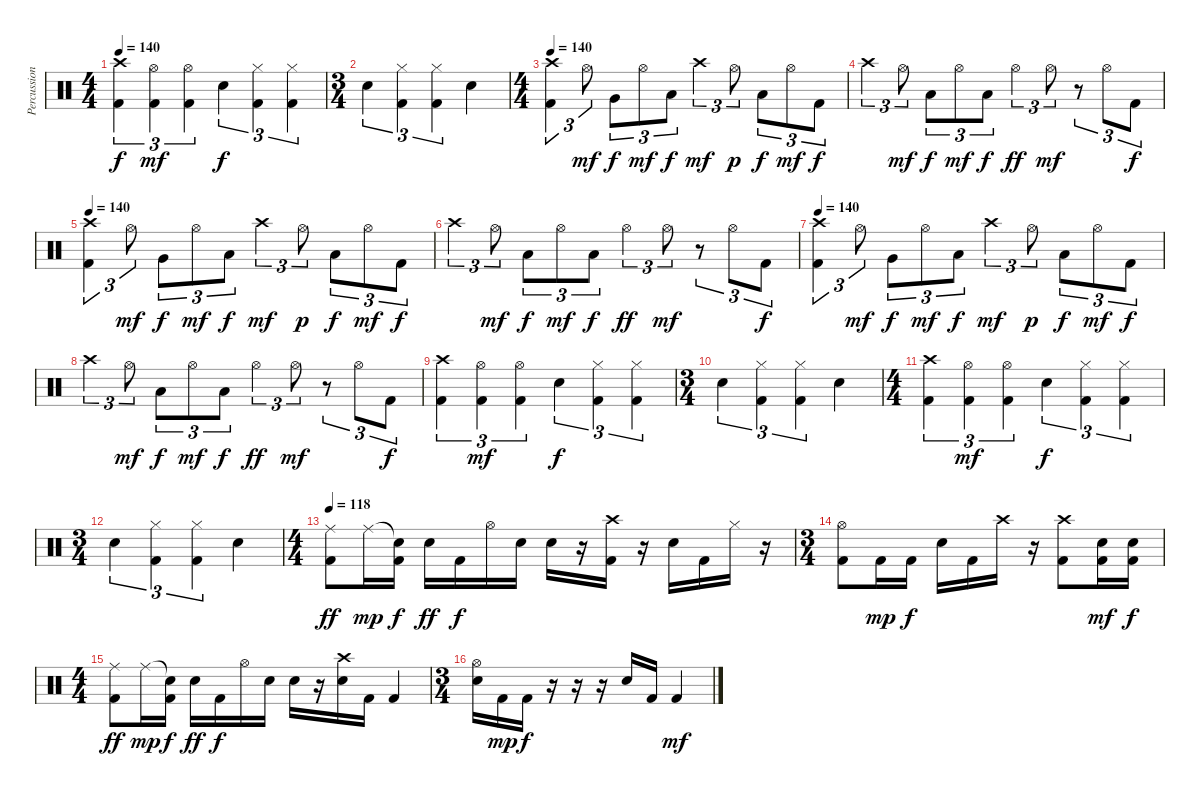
\track ("Percussion" "Percussion") {instrument percussion}
\staff {score}
\articulation defaults
\ts (4 4)
\tempo 140
\clef neutral
\ks c
("Crash high (hit)" "Kick (hit) 2").4{tu (3 2) dy f} ("Hi-Hat (open)" "Kick (hit) 2").4{tu (3 2) dy mf} ("Hi-Hat (open)" "Kick (hit) 2").4{tu (3 2)} "Snare (hit) 2".4{tu (3 2) dy f} ("Hi-Hat (closed)" "Kick (hit) 2").4{tu (3 2)} ("Hi-Hat (closed)" "Kick (hit) 2").4{tu (3 2)} |
\ts (3 4)
"Snare (hit) 2".4{tu (3 2)} ("Hi-Hat (closed)" "Kick (hit) 2").4{tu (3 2)} ("Hi-Hat (closed)" "Kick (hit) 2").4{tu (3 2)} "Snare (hit) 2".4 |
\ts (4 4)
\tempo 140
("Crash high (hit)" "Kick (hit) 2").4{tu (3 2)} "Hi-Hat (open)".8{tu (3 2) dy mf} "Very Low Tom (hit)".8{tu (3 2) dy f} "Hi-Hat (open)".8{tu (3 2) dy mf} "Low Floor Tom (hit)".8{tu (3 2) dy f} "Crash high (hit)".4{tu (3 2) dy mf} "Hi-Hat (open)".8{tu (3 2) dy p} "Low Floor Tom (hit)".8{tu (3 2) dy f} "Hi-Hat (open)".8{tu (3 2) dy mf} "Kick (hit) 2".8{tu (3 2) dy f} |
"Crash high (hit)".4{tu (3 2)} "Hi-Hat (open)".8{tu (3 2) dy mf} "Low Floor Tom (hit)".8{tu (3 2) dy f} "Hi-Hat (open)".8{tu (3 2) dy mf} "Low Floor Tom (hit)".8{tu (3 2) dy f} "Hi-Hat (open)".4{tu (3 2) dy ff} "Hi-Hat (open)".8{tu (3 2) dy mf} r.8{tu (3 2)} "Hi-Hat (open)".8{tu (3 2)} "Kick (hit) 2".8{tu (3 2) dy f} |
\tempo 140
("Crash high (hit)" "Kick (hit) 2").4{tu (3 2)} "Hi-Hat (open)".8{tu (3 2) dy mf} "Very Low Tom (hit)".8{tu (3 2) dy f} "Hi-Hat (open)".8{tu (3 2) dy mf} "Low Floor Tom (hit)".8{tu (3 2) dy f} "Crash high (hit)".4{tu (3 2) dy mf} "Hi-Hat (open)".8{tu (3 2) dy p} "Low Floor Tom (hit)".8{tu (3 2) dy f} "Hi-Hat (open)".8{tu (3 2) dy mf} "Kick (hit) 2".8{tu (3 2) dy f} |
"Crash high (hit)".4{tu (3 2)} "Hi-Hat (open)".8{tu (3 2) dy mf} "Low Floor Tom (hit)".8{tu (3 2) dy f} "Hi-Hat (open)".8{tu (3 2) dy mf} "Low Floor Tom (hit)".8{tu (3 2) dy f} "Hi-Hat (open)".4{tu (3 2) dy ff} "Hi-Hat (open)".8{tu (3 2) dy mf} r.8{tu (3 2)} "Hi-Hat (open)".8{tu (3 2)} "Kick (hit) 2".8{tu (3 2) dy f} |
\tempo 140
("Crash high (hit)" "Kick (hit) 2").4{tu (3 2)} "Hi-Hat (open)".8{tu (3 2) dy mf} "Very Low Tom (hit)".8{tu (3 2) dy f} "Hi-Hat (open)".8{tu (3 2) dy mf} "Low Floor Tom (hit)".8{tu (3 2) dy f} "Crash high (hit)".4{tu (3 2) dy mf} "Hi-Hat (open)".8{tu (3 2) dy p} "Low Floor Tom (hit)".8{tu (3 2) dy f} "Hi-Hat (open)".8{tu (3 2) dy mf} "Kick (hit) 2".8{tu (3 2) dy f} |
"Crash high (hit)".4{tu (3 2)} "Hi-Hat (open)".8{tu (3 2) dy mf} "Low Floor Tom (hit)".8{tu (3 2) dy f} "Hi-Hat (open)".8{tu (3 2) dy mf} "Low Floor Tom (hit)".8{tu (3 2) dy f} "Hi-Hat (open)".4{tu (3 2) dy ff} "Hi-Hat (open)".8{tu (3 2) dy mf} r.8{tu (3 2)} "Hi-Hat (open)".8{tu (3 2)} "Kick (hit) 2".8{tu (3 2) dy f} |
("Crash high (hit)" "Kick (hit) 2").4{tu (3 2)} ("Hi-Hat (open)" "Kick (hit) 2").4{tu (3 2) dy mf} ("Hi-Hat (open)" "Kick (hit) 2").4{tu (3 2)} "Snare (hit) 2".4{tu (3 2) dy f} ("Hi-Hat (closed)" "Kick (hit) 2").4{tu (3 2)} ("Hi-Hat (closed)" "Kick (hit) 2").4{tu (3 2)} |
\ts (3 4)
"Snare (hit) 2".4{tu (3 2)} ("Hi-Hat (closed)" "Kick (hit) 2").4{tu (3 2)} ("Hi-Hat (closed)" "Kick (hit) 2").4{tu (3 2)} "Snare (hit) 2".4 |
\ts (4 4)
("Crash high (hit)" "Kick (hit) 2").4{tu (3 2)} ("Hi-Hat (open)" "Kick (hit) 2").4{tu (3 2) dy mf} ("Hi-Hat (open)" "Kick (hit) 2").4{tu (3 2)} "Snare (hit) 2".4{tu (3 2) dy f} ("Hi-Hat (closed)" "Kick (hit) 2").4{tu (3 2)} ("Hi-Hat (closed)" "Kick (hit) 2").4{tu (3 2)} |
\ts (3 4)
"Snare (hit) 2".4{tu (3 2)} ("Hi-Hat (closed)" "Kick (hit) 2").4{tu (3 2)} ("Hi-Hat (closed)" "Kick (hit) 2").4{tu (3 2)} "Snare (hit) 2".4 |
\ts (4 4)
\tempo 118
("Ride (middle)" "Kick (hit) 2").8{dy ff} "Ride (middle)".16{dy mp} ("Snare (hit)"{t} "Kick (hit) 2").16{dy f} "Snare (hit) 2".16{dy ff} "Kick (hit) 2".16{dy f} "Hi-Hat (open)".16 "Snare (hit) 2".16 "Snare (hit) 2".16 r.16 ("Crash high (hit)" "Kick (hit) 2").16 r.16 "Snare (hit) 2".16 "Kick (hit) 2".16 "Hi-Hat (closed)".16 r.16 |
\ts (3 4)
("Hi-Hat (open)" "Kick (hit) 2").8 "Kick (hit) 2".16{dy mp} "Kick (hit) 2".16{dy f} "Snare (hit) 2".16 "Kick (hit) 2".16 "Crash high (hit)".16 r.16 ("Crash high (hit)" "Kick (hit) 2").8 ("Snare (hit) 2" "Kick (hit) 2").16{dy mf} ("Snare (hit) 2" "Kick (hit) 2").16{dy f} |
\ts (4 4)
("Ride (middle)" "Kick (hit) 2").8{dy ff} "Ride (middle)".16{dy mp} ("Snare (hit)"{t} "Kick (hit) 2").16{dy f} "Snare (hit) 2".16{dy ff} "Kick (hit) 2".16{dy f} "Hi-Hat (open)".16 "Snare (hit) 2".16 "Snare (hit) 2".16 r.16 ("Crash high (hit)" "Snare (hit) 2").16 "Kick (hit) 2".16 "Kick (hit) 2".4 |
\ts (3 4)
("Hi-Hat (open)" "Snare (hit) 2").16 "Kick (hit) 2".16{dy mp} "Kick (hit) 2".16{dy f} r.16 r.16 r.16 "Snare (hit) 2".16 "Kick (hit) 2".16 "Kick (hit) 2".4{dy mf}
